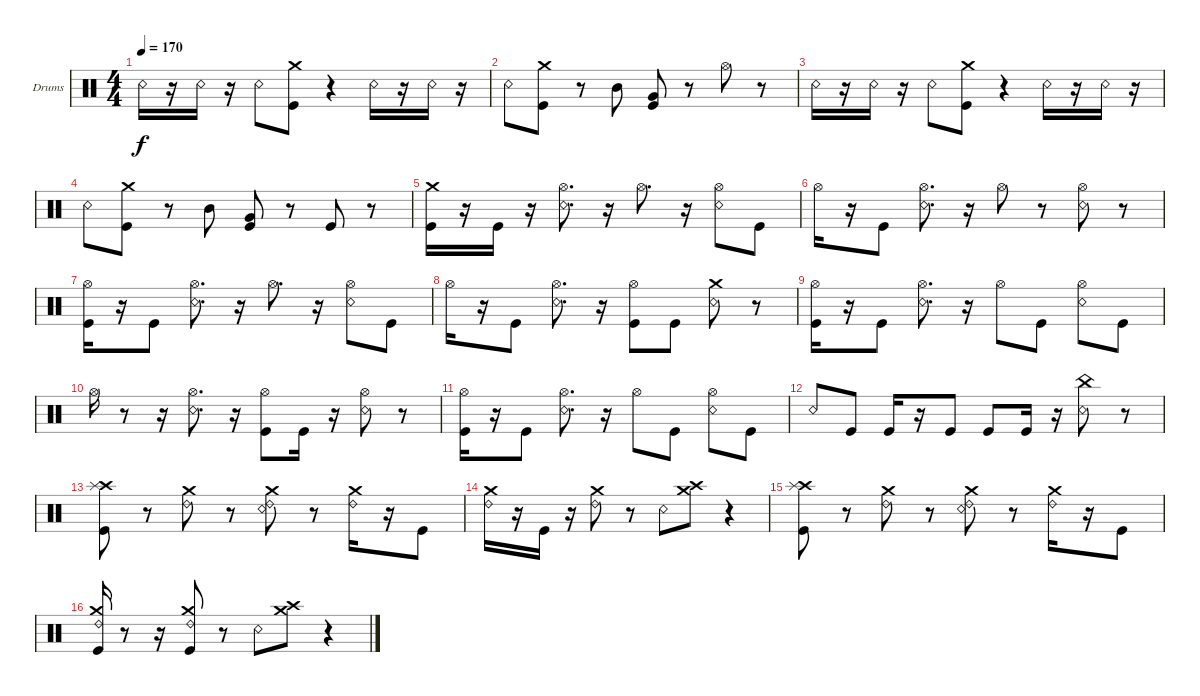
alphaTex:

\bracketExtendMode groupsimilarinstruments
\firstSystemTrackNameOrientation horizontal
\otherSystemsTrackNameOrientation horizontal
\track ("Drumkit" "Drums") {instrument percussion}
\staff {score}
\articulation defaults
\ts (4 4)
\tempo 170
\clef neutral
\ks c "Snare (rim shot)".16{dy f}
r.16 "Snare (rim shot)".16 r.16 "Snare (rim shot)".8 ("Kick (hit)" "Crash medium (hit)").8 r.4 "Snare (rim shot)".16 r.16 "Snare (rim shot)".16 r.16 |
"Snare (rim shot)".8 ("Kick (hit)" "Crash medium (hit)").8 r.8 "Mid Tom (hit)".8 ("Kick (hit)" "Very Low Tom (hit)").8 r.8 "Hi-Hat (open)".8 r.8 |
"Snare (rim shot)".16 r.16 "Snare (rim shot)".16 r.16 "Snare (rim shot)".8 ("Kick (hit)" "Crash medium (hit)").8 r.4 "Snare (rim shot)".16 r.16 "Snare (rim shot)".16 r.16 |
"Snare (rim shot)".8 ("Kick (hit)" "Crash medium (hit)").8 r.8 "Mid Tom (hit)".8 ("Kick (hit)" "Very Low Tom (hit)").8 r.8 "Kick (hit)".8 r.8 |
("Kick (hit)" "Crash medium (hit)").16 r.16 "Kick (hit)".16 r.16 ("Snare (rim shot)" "Hi-Hat (open)").8{d} r.16 "Hi-Hat (open)".8{d} r.16 ("Snare (rim shot)" "Hi-Hat (open)").8 "Kick (hit)".8 |
"Hi-Hat (open)".16 r.16 "Kick (hit)".8 ("Snare (rim shot)" "Hi-Hat (open)").8{d} r.16 "Hi-Hat (open)".8 r.8 ("Snare (rim shot)" "Hi-Hat (open)").8 r.8 |
("Kick (hit)" "Hi-Hat (open)").16 r.16 "Kick (hit)".8 ("Snare (rim shot)" "Hi-Hat (open)").8{d} r.16 "Hi-Hat (open)".8{d} r.16 ("Snare (rim shot)" "Hi-Hat (open)").8 "Kick (hit)".8 |
"Hi-Hat (open)".16 r.16 "Kick (hit)".8 ("Snare (rim shot)" "Hi-Hat (open)").8{d} r.16 ("Kick (hit)" "Hi-Hat (open)").8 "Kick (hit)".8 ("Snare (rim shot)" "Crash medium (hit)").8 r.8 |
("Kick (hit)" "Hi-Hat (open)").16 r.16 "Kick (hit)".8 ("Snare (rim shot)" "Hi-Hat (open)").8{d} r.16 "Hi-Hat (open)".8 "Kick (hit)".8 ("Snare (rim shot)" "Hi-Hat (open)").8 "Kick (hit)".8 |
"Hi-Hat (open)".16 r.8 r.16 ("Snare (rim shot)" "Hi-Hat (open)").8{d} r.16 ("Kick (hit)" "Hi-Hat (open)").8 "Kick (hit)".16 r.16 ("Snare (rim shot)" "Hi-Hat (open)").8 r.8 |
("Kick (hit)" "Hi-Hat (open)").16 r.16 "Kick (hit)".8 ("Snare (rim shot)" "Hi-Hat (open)").8{d} r.16 "Hi-Hat (open)".8 "Kick (hit)".8 ("Snare (rim shot)" "Hi-Hat (open)").8 "Kick (hit)".8 |
"Snare (rim shot)".8 "Kick (hit)".8 "Kick (hit)".16 r.16 "Kick (hit)".8 "Kick (hit)".8 "Kick (hit)".16 r.16 ("Snare (rim shot)" "China (hit)").8 r.8 |
("Kick (hit)" "Crash high (hit)" "Splash (hit)").8 r.8 ("Ride (bell) 2" "Crash medium (hit)").8 r.8 ("Snare (rim shot)" "Ride (bell) 2" "Crash medium (hit)").8 r.8 ("Ride (bell) 2" "Crash medium (hit)").16 r.16 "Kick (hit)".8 |
("Ride (bell) 2" "Crash medium (hit)").16 r.16 "Kick (hit)".16 r.16 ("Ride (bell) 2" "Crash medium (hit)").8 r.8 "Snare (rim shot)".8 ("Crash high (hit)" "Crash medium (hit)").8 r.4 |
("Kick (hit)" "Crash high (hit)" "Splash (hit)").8 r.8 ("Ride (bell) 2" "Crash medium (hit)").8 r.8 ("Snare (rim shot)" "Ride (bell) 2" "Crash medium (hit)").8 r.8 ("Ride (bell) 2" "Crash medium (hit)").16 r.16 "Kick (hit)".8 |
("Kick (hit)" "Ride (bell) 2" "Crash medium (hit)").16 r.8 r.16 ("Kick (hit)" "Ride (bell) 2" "Crash medium (hit)").8 r.8 "Snare (rim shot)".8 ("Crash high (hit)" "Crash medium (hit)").8 r.4
